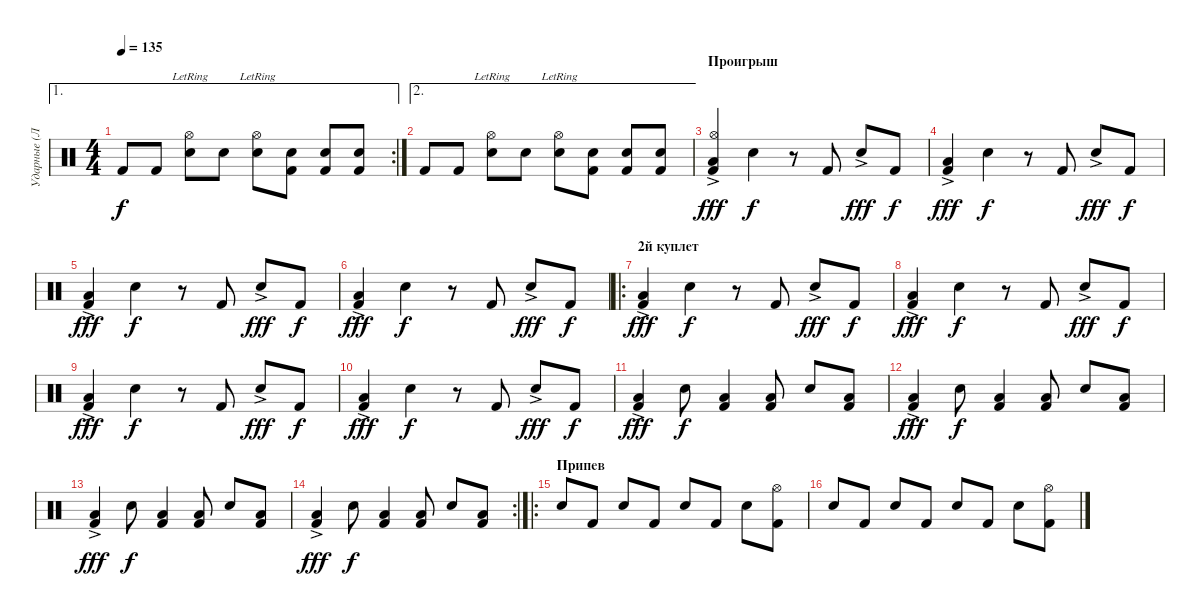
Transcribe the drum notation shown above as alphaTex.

\track ("Ударные (Лысов)" "Ударные (Л") {instrument percussion}
\staff {score}
\articulation defaults
\ae 1
\rc 2
\ts (4 4)
\tempo 135
\clef neutral
\ks c "Kick (hit) 2".8{dy f} "Kick (hit) 2".8
("Hi-Hat (open)"{lr} "Snare (hit) 2").8 "Snare (hit) 2".8 ("Hi-Hat (open)"{lr} "Snare (hit) 2").8 ("Kick (hit) 2" "Snare (hit) 2").8 ("Kick (hit) 2" "Snare (hit) 2").8 ("Kick (hit) 2" "Snare (hit) 2").8 |
\ae 2 "Kick (hit) 2".8 "Kick (hit) 2".8
("Hi-Hat (open)"{lr} "Snare (hit) 2").8 "Snare (hit) 2".8 ("Hi-Hat (open)"{lr} "Snare (hit) 2").8 ("Kick (hit) 2" "Snare (hit) 2").8 ("Kick (hit) 2" "Snare (hit) 2").8 ("Kick (hit) 2" "Snare (hit) 2").8 |
\section ("" "Проигрыш")
("Low Floor Tom (hit)"{ac} "Kick (hit) 2" "Hi-Hat (open)").4{dy fff} "Snare (hit) 2".4{dy f} r.8 "Kick (hit) 2".8 "Snare (hit) 2"{ac}.8{dy fff} "Kick (hit) 2".8{dy f} |
("Low Floor Tom (hit)"{ac} "Kick (hit) 2").4{dy fff} "Snare (hit) 2".4{dy f} r.8 "Kick (hit) 2".8 "Snare (hit) 2"{ac}.8{dy fff} "Kick (hit) 2".8{dy f} |
("Low Floor Tom (hit)"{ac} "Kick (hit) 2").4{dy fff} "Snare (hit) 2".4{dy f} r.8 "Kick (hit) 2".8 "Snare (hit) 2"{ac}.8{dy fff} "Kick (hit) 2".8{dy f} |
("Low Floor Tom (hit)"{ac} "Kick (hit) 2").4{dy fff} "Snare (hit) 2".4{dy f} r.8 "Kick (hit) 2".8 "Snare (hit) 2"{ac}.8{dy fff} "Kick (hit) 2".8{dy f} |
\ro
\section ("" "2й куплет")
("Low Floor Tom (hit)"{ac} "Kick (hit) 2").4{dy fff} "Snare (hit) 2".4{dy f} r.8 "Kick (hit) 2".8 "Snare (hit) 2"{ac}.8{dy fff} "Kick (hit) 2".8{dy f} |
("Low Floor Tom (hit)"{ac} "Kick (hit) 2").4{dy fff} "Snare (hit) 2".4{dy f} r.8 "Kick (hit) 2".8 "Snare (hit) 2"{ac}.8{dy fff} "Kick (hit) 2".8{dy f} |
("Low Floor Tom (hit)"{ac} "Kick (hit) 2").4{dy fff} "Snare (hit) 2".4{dy f} r.8 "Kick (hit) 2".8 "Snare (hit) 2"{ac}.8{dy fff} "Kick (hit) 2".8{dy f} |
("Low Floor Tom (hit)"{ac} "Kick (hit) 2").4{dy fff} "Snare (hit) 2".4{dy f} r.8 "Kick (hit) 2".8 "Snare (hit) 2"{ac}.8{dy fff} "Kick (hit) 2".8{dy f} |
("Low Floor Tom (hit)"{ac} "Kick (hit) 2").4{dy fff} "Snare (hit) 2".8{dy f} ("Low Floor Tom (hit)" "Kick (hit) 2").4 ("Low Floor Tom (hit)" "Kick (hit) 2").8 "Snare (hit) 2".8 ("Low Floor Tom (hit)" "Kick (hit) 2").8 |
("Low Floor Tom (hit)"{ac} "Kick (hit) 2").4{dy fff} "Snare (hit) 2".8{dy f} ("Low Floor Tom (hit)" "Kick (hit) 2").4 ("Low Floor Tom (hit)" "Kick (hit) 2").8 "Snare (hit) 2".8 ("Low Floor Tom (hit)" "Kick (hit) 2").8 |
("Low Floor Tom (hit)"{ac} "Kick (hit) 2").4{dy fff} "Snare (hit) 2".8{dy f} ("Low Floor Tom (hit)" "Kick (hit) 2").4 ("Low Floor Tom (hit)" "Kick (hit) 2").8 "Snare (hit) 2".8 ("Low Floor Tom (hit)" "Kick (hit) 2").8 |
\rc 2
("Low Floor Tom (hit)"{ac} "Kick (hit) 2").4{dy fff} "Snare (hit) 2".8{dy f} ("Low Floor Tom (hit)" "Kick (hit) 2").4 ("Low Floor Tom (hit)" "Kick (hit) 2").8 "Snare (hit) 2".8 ("Low Floor Tom (hit)" "Kick (hit) 2").8 |
\ro
\section ("" "Припев")
"Snare (hit) 2".8 "Kick (hit) 2".8 "Snare (hit) 2".8 "Kick (hit) 2".8 "Snare (hit) 2".8 "Kick (hit) 2".8 "Snare (hit) 2".8 ("Kick (hit) 2" "Hi-Hat (open)").8 |
"Snare (hit) 2".8 "Kick (hit) 2".8 "Snare (hit) 2".8 "Kick (hit) 2".8 "Snare (hit) 2".8 "Kick (hit) 2".8 "Snare (hit) 2".8 ("Kick (hit) 2" "Hi-Hat (open)").8
